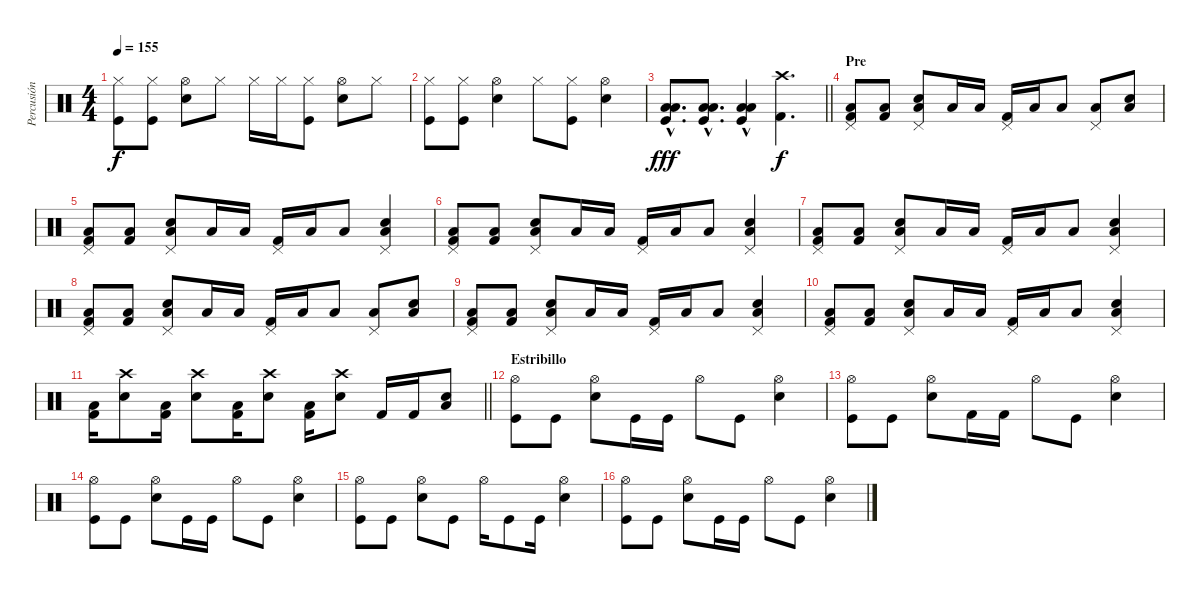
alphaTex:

\track ("Percusión" "Percusión") {instrument percussion}
\staff {score}
\articulation defaults
\ts (4 4)
\tempo 155
\clef neutral
\ks c
("Hi-Hat (closed)" "Kick (hit)").8{dy f} ("Hi-Hat (closed)" "Kick (hit)").8 ("Hi-Hat (open)" "Snare (hit) 2").8 "Hi-Hat (closed)".8 "Hi-Hat (closed)".16 "Hi-Hat (closed)".16 ("Hi-Hat (closed)" "Kick (hit)").8 ("Hi-Hat (open)" "Snare (hit) 2").8 "Hi-Hat (closed)".8 |
("Hi-Hat (closed)" "Kick (hit)").8 ("Hi-Hat (closed)" "Kick (hit)").8 ("Hi-Hat (open)" "Snare (hit) 2").4 "Hi-Hat (closed)".8 ("Hi-Hat (closed)" "Kick (hit)").8 ("Hi-Hat (open)" "Snare (hit) 2").4 |
\barLineRight lightlight
("Low Tom (hit)"{hac} "Low Floor Tom (hit)"{hac} "Kick (hit)"{hac}).8{d dy fff} ("Low Tom (hit)"{hac} "Low Floor Tom (hit)"{hac} "Kick (hit)"{hac}).8{d} ("Low Tom (hit)"{hac} "Low Floor Tom (hit)"{hac} "Kick (hit)"{hac}).4 ("Crash high (hit)" "Kick (hit) 2").4{d dy f} |
\section ("" "Pre")
("Low Floor Tom (hit)" "Kick (hit) 2" "Pedal Hi-Hat (hit)").8 ("Low Floor Tom (hit)" "Kick (hit) 2").8 ("Snare (hit) 2" "Low Floor Tom (hit)" "Pedal Hi-Hat (hit)").8 "Low Floor Tom (hit)".16 "Low Floor Tom (hit)".16 ("Kick (hit) 2" "Pedal Hi-Hat (hit)").16 "Low Floor Tom (hit)".16 "Low Floor Tom (hit)".8 ("Low Floor Tom (hit)" "Pedal Hi-Hat (hit)").8 ("Snare (hit) 2" "Low Floor Tom (hit)").8 |
("Low Floor Tom (hit)" "Kick (hit) 2" "Pedal Hi-Hat (hit)").8 ("Low Floor Tom (hit)" "Kick (hit) 2").8 ("Snare (hit) 2" "Low Floor Tom (hit)" "Pedal Hi-Hat (hit)").8 "Low Floor Tom (hit)".16 "Low Floor Tom (hit)".16 ("Kick (hit) 2" "Pedal Hi-Hat (hit)").16 "Low Floor Tom (hit)".16 "Low Floor Tom (hit)".8 ("Snare (hit) 2" "Low Floor Tom (hit)" "Pedal Hi-Hat (hit)").4 |
("Low Floor Tom (hit)" "Kick (hit) 2" "Pedal Hi-Hat (hit)").8 ("Low Floor Tom (hit)" "Kick (hit) 2").8 ("Snare (hit) 2" "Low Floor Tom (hit)" "Pedal Hi-Hat (hit)").8 "Low Floor Tom (hit)".16 "Low Floor Tom (hit)".16 ("Kick (hit) 2" "Pedal Hi-Hat (hit)").16 "Low Floor Tom (hit)".16 "Low Floor Tom (hit)".8 ("Snare (hit) 2" "Low Floor Tom (hit)" "Pedal Hi-Hat (hit)").4 |
("Low Floor Tom (hit)" "Kick (hit) 2" "Pedal Hi-Hat (hit)").8 ("Low Floor Tom (hit)" "Kick (hit) 2").8 ("Snare (hit) 2" "Low Floor Tom (hit)" "Pedal Hi-Hat (hit)").8 "Low Floor Tom (hit)".16 "Low Floor Tom (hit)".16 ("Kick (hit) 2" "Pedal Hi-Hat (hit)").16 "Low Floor Tom (hit)".16 "Low Floor Tom (hit)".8 ("Snare (hit) 2" "Low Floor Tom (hit)" "Pedal Hi-Hat (hit)").4 |
("Low Floor Tom (hit)" "Kick (hit) 2" "Pedal Hi-Hat (hit)").8 ("Low Floor Tom (hit)" "Kick (hit) 2").8 ("Snare (hit) 2" "Low Floor Tom (hit)" "Pedal Hi-Hat (hit)").8 "Low Floor Tom (hit)".16 "Low Floor Tom (hit)".16 ("Kick (hit) 2" "Pedal Hi-Hat (hit)").16 "Low Floor Tom (hit)".16 "Low Floor Tom (hit)".8 ("Low Floor Tom (hit)" "Pedal Hi-Hat (hit)").8 ("Snare (hit) 2" "Low Floor Tom (hit)").8 |
("Low Floor Tom (hit)" "Kick (hit) 2" "Pedal Hi-Hat (hit)").8 ("Low Floor Tom (hit)" "Kick (hit) 2").8 ("Snare (hit) 2" "Low Floor Tom (hit)" "Pedal Hi-Hat (hit)").8 "Low Floor Tom (hit)".16 "Low Floor Tom (hit)".16 ("Kick (hit) 2" "Pedal Hi-Hat (hit)").16 "Low Floor Tom (hit)".16 "Low Floor Tom (hit)".8 ("Snare (hit) 2" "Low Floor Tom (hit)" "Pedal Hi-Hat (hit)").4 |
("Low Floor Tom (hit)" "Kick (hit) 2" "Pedal Hi-Hat (hit)").8 ("Low Floor Tom (hit)" "Kick (hit) 2").8 ("Snare (hit) 2" "Low Floor Tom (hit)" "Pedal Hi-Hat (hit)").8 "Low Floor Tom (hit)".16 "Low Floor Tom (hit)".16 ("Kick (hit) 2" "Pedal Hi-Hat (hit)").16 "Low Floor Tom (hit)".16 "Low Floor Tom (hit)".8 ("Snare (hit) 2" "Low Floor Tom (hit)" "Pedal Hi-Hat (hit)").4 |
\barLineRight lightlight
("Low Floor Tom (hit)" "Kick (hit) 2").16 ("Crash high (hit)" "Snare (hit) 2").8 ("Low Floor Tom (hit)" "Kick (hit) 2").16 ("Crash high (hit)" "Snare (hit) 2").8 ("Low Floor Tom (hit)" "Kick (hit) 2").16 ("Crash high (hit)" "Snare (hit) 2").8 ("Low Floor Tom (hit)" "Kick (hit) 2").16 ("Crash high (hit)" "Snare (hit) 2").8 "Kick (hit) 2".16 "Kick (hit) 2".16 ("Snare (hit) 2" "Low Floor Tom (hit)").8 |
\section ("" "Estribillo ")
("Hi-Hat (open)" "Kick (hit)").8 "Kick (hit)".8 ("Hi-Hat (open)" "Snare (hit) 2").8 "Kick (hit)".16 "Kick (hit)".16 "Hi-Hat (open)".8 "Kick (hit)".8 ("Hi-Hat (open)" "Snare (hit) 2").4 |
("Hi-Hat (open)" "Kick (hit)").8 "Kick (hit)".8 ("Hi-Hat (open)" "Snare (hit) 2").8 "Kick (hit) 2".16 "Kick (hit) 2".16 "Hi-Hat (open)".8 "Kick (hit)".8 ("Hi-Hat (open)" "Snare (hit) 2").4 |
("Hi-Hat (open)" "Kick (hit)").8 "Kick (hit)".8 ("Hi-Hat (open)" "Snare (hit) 2").8 "Kick (hit)".16 "Kick (hit)".16 "Hi-Hat (open)".8 "Kick (hit)".8 ("Hi-Hat (open)" "Snare (hit) 2").4 |
("Hi-Hat (open)" "Kick (hit)").8 "Kick (hit)".8 ("Hi-Hat (open)" "Snare (hit) 2").8 "Kick (hit)".8 "Hi-Hat (open)".16 "Kick (hit)".8 "Kick (hit)".16 ("Hi-Hat (open)" "Snare (hit) 2").4 |
("Hi-Hat (open)" "Kick (hit)").8 "Kick (hit)".8 ("Hi-Hat (open)" "Snare (hit) 2").8 "Kick (hit)".16 "Kick (hit)".16 "Hi-Hat (open)".8 "Kick (hit)".8 ("Hi-Hat (open)" "Snare (hit) 2").4
